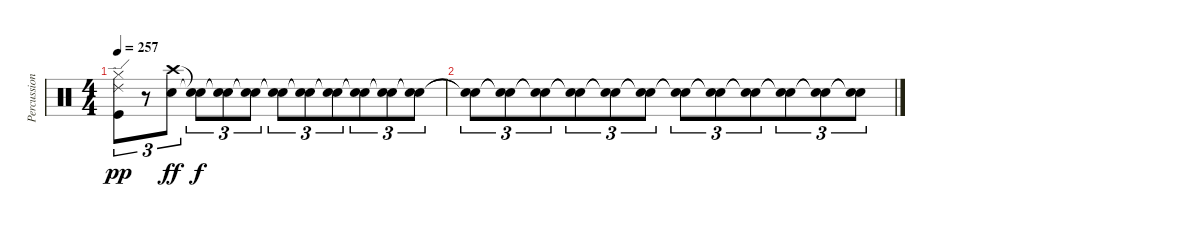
\track ("Percussion" "Percussion") {instrument percussion}
\staff {score}
\articulation defaults
\ts (4 4)
\tempo 257
\clef neutral
\ks c
("Ride (edge) 2" "Hi-Hat (closed)" "Kick (hit)").8{tu (3 2) dy pp beam merge} r.8{tu (3 2) beam merge} ("Crash high (hit)" "Electric Snare (hit)").8{tu (3 2) dy ff} ("Snare (hit)"{t} "Snare (hit)"{t}).8{tu (3 2) dy f} ("Snare (hit)"{t} "Snare (hit)"{t}).8{tu (3 2)} ("Snare (hit)"{t} "Snare (hit)"{t}).8{tu (3 2)} ("Snare (hit)"{t} "Snare (hit)"{t}).8{tu (3 2)} ("Snare (hit)"{t} "Snare (hit)"{t}).8{tu (3 2) beam merge} ("Snare (hit)"{t} "Snare (hit)"{t}).8{tu (3 2) beam merge} ("Snare (hit)"{t} "Snare (hit)"{t}).8{tu (3 2)} ("Snare (hit)"{t} "Snare (hit)"{t}).8{tu (3 2)} ("Snare (hit)"{t} "Snare (hit)"{t}).8{tu (3 2)} |
("Snare (hit)"{t} "Snare (hit)"{t}).8{tu (3 2)} ("Snare (hit)"{t} "Snare (hit)"{t}).8{tu (3 2)} ("Snare (hit)"{t} "Snare (hit)"{t}).8{tu (3 2) beam merge} ("Snare (hit)"{t} "Snare (hit)"{t}).8{tu (3 2)} ("Snare (hit)"{t} "Snare (hit)"{t}).8{tu (3 2) beam merge} ("Snare (hit)"{t} "Snare (hit)"{t}).8{tu (3 2)} ("Snare (hit)"{t} "Snare (hit)"{t}).8{tu (3 2)} ("Snare (hit)"{t} "Snare (hit)"{t}).8{tu (3 2)} ("Snare (hit)"{t} "Snare (hit)"{t}).8{tu (3 2) beam merge} ("Snare (hit)"{t} "Snare (hit)"{t}).8{tu (3 2)} ("Snare (hit)"{t} "Snare (hit)"{t}).8{tu (3 2)} ("Snare (hit)"{t} "Snare (hit)"{t}).8{tu (3 2)}
